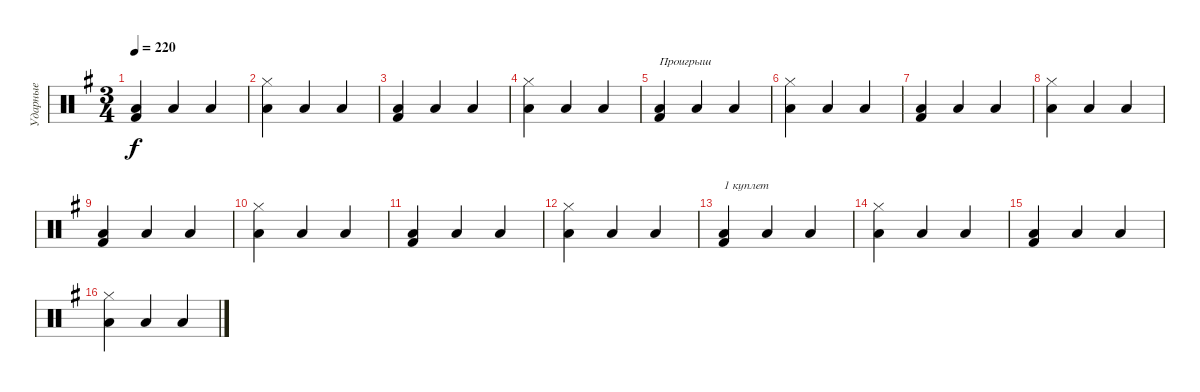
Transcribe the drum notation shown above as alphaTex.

\track ("Ударные" "Ударные") {instrument percussion}
\staff {score}
\articulation defaults
\ts (3 4)
\tempo 220
\clef neutral
\ks eminor
("Kick (hit) 2" "Low Tom (hit)").4{dy f} "Low Tom (hit)".4 "Low Tom (hit)".4 |
("Hi-Hat (closed)" "Low Tom (hit)").4 "Low Tom (hit)".4 "Low Tom (hit)".4 |
("Kick (hit) 2" "Low Tom (hit)").4 "Low Tom (hit)".4 "Low Tom (hit)".4 |
("Hi-Hat (closed)" "Low Tom (hit)").4 "Low Tom (hit)".4 "Low Tom (hit)".4 |
("Kick (hit) 2" "Low Tom (hit)").4{txt "Проигрыш"} "Low Tom (hit)".4 "Low Tom (hit)".4 |
("Hi-Hat (closed)" "Low Tom (hit)").4 "Low Tom (hit)".4 "Low Tom (hit)".4 |
("Kick (hit) 2" "Low Tom (hit)").4 "Low Tom (hit)".4 "Low Tom (hit)".4 |
("Hi-Hat (closed)" "Low Tom (hit)").4 "Low Tom (hit)".4 "Low Tom (hit)".4 |
("Kick (hit) 2" "Low Tom (hit)").4 "Low Tom (hit)".4 "Low Tom (hit)".4 |
("Hi-Hat (closed)" "Low Tom (hit)").4 "Low Tom (hit)".4 "Low Tom (hit)".4 |
("Kick (hit) 2" "Low Tom (hit)").4 "Low Tom (hit)".4 "Low Tom (hit)".4 |
("Hi-Hat (closed)" "Low Tom (hit)").4 "Low Tom (hit)".4 "Low Tom (hit)".4 |
("Kick (hit) 2" "Low Tom (hit)").4{txt "1 куплет"} "Low Tom (hit)".4 "Low Tom (hit)".4 |
("Hi-Hat (closed)" "Low Tom (hit)").4 "Low Tom (hit)".4 "Low Tom (hit)".4 |
("Kick (hit) 2" "Low Tom (hit)").4 "Low Tom (hit)".4 "Low Tom (hit)".4 |
("Hi-Hat (closed)" "Low Tom (hit)").4 "Low Tom (hit)".4 "Low Tom (hit)".4
